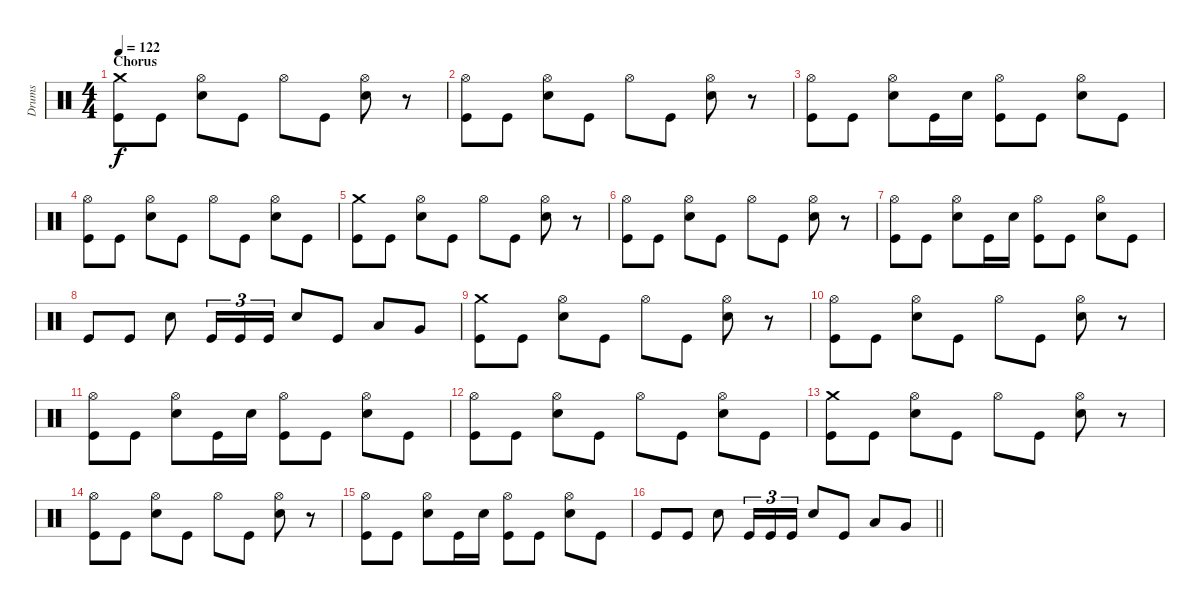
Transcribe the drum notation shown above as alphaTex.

\track ("Drums" "Drums") {instrument percussion}
\staff {score}
\articulation defaults
\ts (4 4)
\section ("" "Chorus")
\tempo 122
\clef neutral
\ks c
("Crash medium (hit)" "Kick (hit)").8{dy f} "Kick (hit)".8 ("Hi-Hat (open)" "Electric Snare (hit)").8 "Kick (hit)".8 "Hi-Hat (open)".8 "Kick (hit)".8 ("Hi-Hat (open)" "Electric Snare (hit)").8 r.8 |
("Hi-Hat (open)" "Kick (hit)").8 "Kick (hit)".8 ("Hi-Hat (open)" "Electric Snare (hit)").8 "Kick (hit)".8 "Hi-Hat (open)".8 "Kick (hit)".8 ("Hi-Hat (open)" "Electric Snare (hit)").8 r.8 |
("Hi-Hat (open)" "Kick (hit)").8 "Kick (hit)".8 ("Hi-Hat (open)" "Electric Snare (hit)").8 "Kick (hit)".16 "Electric Snare (hit)".16 ("Hi-Hat (open)" "Kick (hit)").8 "Kick (hit)".8 ("Hi-Hat (open)" "Electric Snare (hit)").8 "Kick (hit)".8 |
("Hi-Hat (open)" "Kick (hit)").8 "Kick (hit)".8 ("Hi-Hat (open)" "Electric Snare (hit)").8 "Kick (hit)".8 "Hi-Hat (open)".8 "Kick (hit)".8 ("Hi-Hat (open)" "Electric Snare (hit)").8 "Kick (hit)".8 |
("Crash medium (hit)" "Kick (hit)").8 "Kick (hit)".8 ("Hi-Hat (open)" "Electric Snare (hit)").8 "Kick (hit)".8 "Hi-Hat (open)".8 "Kick (hit)".8 ("Hi-Hat (open)" "Electric Snare (hit)").8 r.8 |
("Hi-Hat (open)" "Kick (hit)").8 "Kick (hit)".8 ("Hi-Hat (open)" "Electric Snare (hit)").8 "Kick (hit)".8 "Hi-Hat (open)".8 "Kick (hit)".8 ("Hi-Hat (open)" "Electric Snare (hit)").8 r.8 |
("Hi-Hat (open)" "Kick (hit)").8 "Kick (hit)".8 ("Hi-Hat (open)" "Electric Snare (hit)").8 "Kick (hit)".16 "Electric Snare (hit)".16 ("Hi-Hat (open)" "Kick (hit)").8 "Kick (hit)".8 ("Hi-Hat (open)" "Electric Snare (hit)").8 "Kick (hit)".8 |
"Kick (hit)".8 "Kick (hit)".8 "Electric Snare (hit)".8 "Kick (hit)".16{tu (3 2)} "Kick (hit)".16{tu (3 2)} "Kick (hit)".16{tu (3 2)} "Electric Snare (hit)".8 "Kick (hit)".8 "Low Tom (hit)".8 "Very Low Tom (hit)".8 |
("Crash medium (hit)" "Kick (hit)").8 "Kick (hit)".8 ("Hi-Hat (open)" "Electric Snare (hit)").8 "Kick (hit)".8 "Hi-Hat (open)".8 "Kick (hit)".8 ("Hi-Hat (open)" "Electric Snare (hit)").8 r.8 |
("Hi-Hat (open)" "Kick (hit)").8 "Kick (hit)".8 ("Hi-Hat (open)" "Electric Snare (hit)").8 "Kick (hit)".8 "Hi-Hat (open)".8 "Kick (hit)".8 ("Hi-Hat (open)" "Electric Snare (hit)").8 r.8 |
("Hi-Hat (open)" "Kick (hit)").8 "Kick (hit)".8 ("Hi-Hat (open)" "Electric Snare (hit)").8 "Kick (hit)".16 "Electric Snare (hit)".16 ("Hi-Hat (open)" "Kick (hit)").8 "Kick (hit)".8 ("Hi-Hat (open)" "Electric Snare (hit)").8 "Kick (hit)".8 |
("Hi-Hat (open)" "Kick (hit)").8 "Kick (hit)".8 ("Hi-Hat (open)" "Electric Snare (hit)").8 "Kick (hit)".8 "Hi-Hat (open)".8 "Kick (hit)".8 ("Hi-Hat (open)" "Electric Snare (hit)").8 "Kick (hit)".8 |
("Crash medium (hit)" "Kick (hit)").8 "Kick (hit)".8 ("Hi-Hat (open)" "Electric Snare (hit)").8 "Kick (hit)".8 "Hi-Hat (open)".8 "Kick (hit)".8 ("Hi-Hat (open)" "Electric Snare (hit)").8 r.8 |
("Hi-Hat (open)" "Kick (hit)").8 "Kick (hit)".8 ("Hi-Hat (open)" "Electric Snare (hit)").8 "Kick (hit)".8 "Hi-Hat (open)".8 "Kick (hit)".8 ("Hi-Hat (open)" "Electric Snare (hit)").8 r.8 |
("Hi-Hat (open)" "Kick (hit)").8 "Kick (hit)".8 ("Hi-Hat (open)" "Electric Snare (hit)").8 "Kick (hit)".16 "Electric Snare (hit)".16 ("Hi-Hat (open)" "Kick (hit)").8 "Kick (hit)".8 ("Hi-Hat (open)" "Electric Snare (hit)").8 "Kick (hit)".8 |
\barLineRight lightlight "Kick (hit)".8 "Kick (hit)".8 "Electric Snare (hit)".8 "Kick (hit)".16{tu (3 2)} "Kick (hit)".16{tu (3 2)} "Kick (hit)".16{tu (3 2)} "Electric Snare (hit)".8 "Kick (hit)".8 "Low Tom (hit)".8 "Very Low Tom (hit)".8
